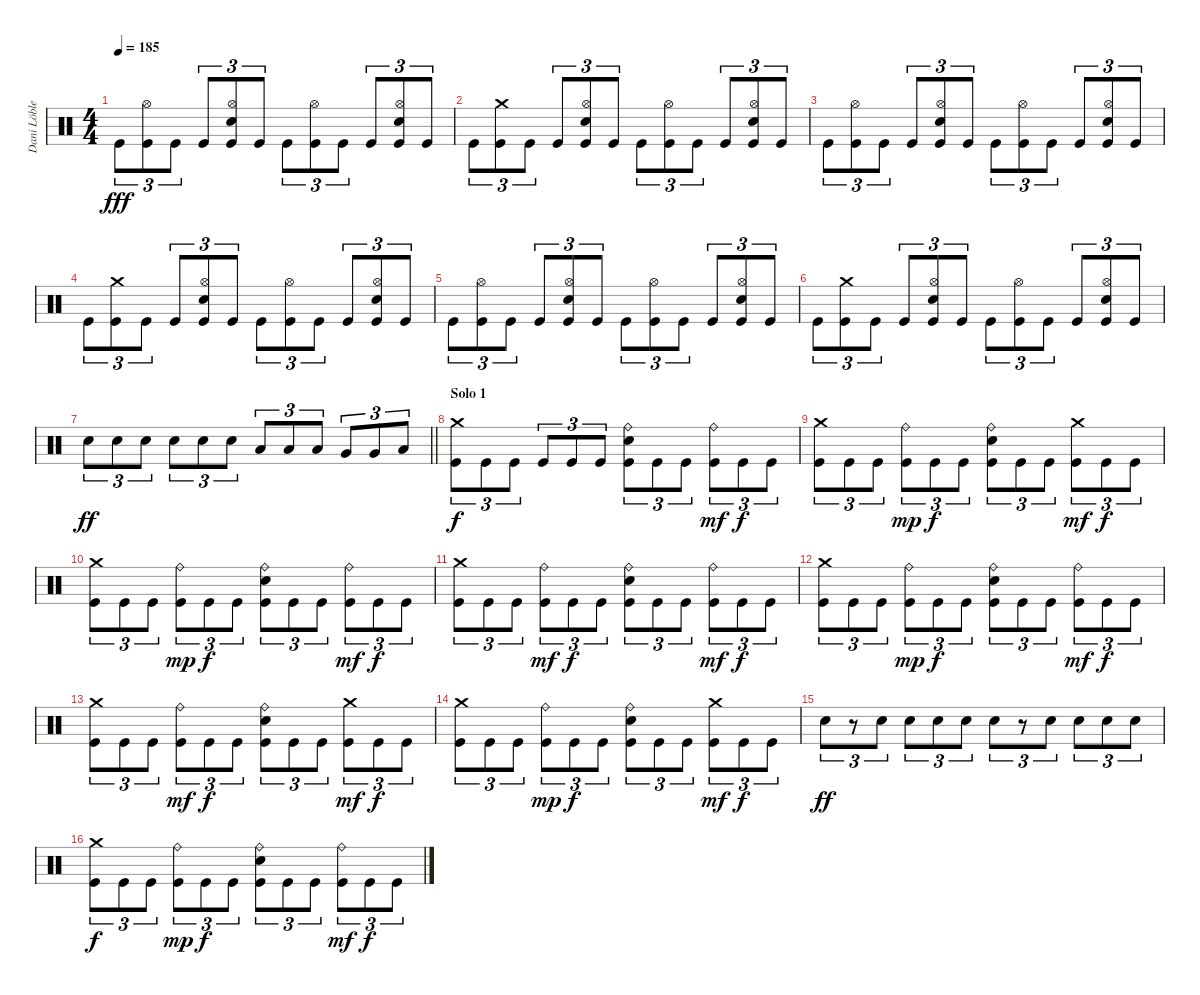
\track ("Dani Löble" "Dani Löble") {instrument percussion}
\staff {score}
\articulation defaults
\ts (4 4)
\tempo 185
\clef neutral
\ks c "Kick (hit)".8{tu (3 2) dy fff}
("Hi-Hat (open)" "Kick (hit)").8{tu (3 2)} "Kick (hit)".8{tu (3 2)} "Kick (hit)".8{tu (3 2)} ("Hi-Hat (open)" "Electric Snare (hit)" "Kick (hit)").8{tu (3 2)} "Kick (hit)".8{tu (3 2)} "Kick (hit)".8{tu (3 2)} ("Hi-Hat (open)" "Kick (hit)").8{tu (3 2)} "Kick (hit)".8{tu (3 2)} "Kick (hit)".8{tu (3 2)} ("Hi-Hat (open)" "Electric Snare (hit)" "Kick (hit)").8{tu (3 2)} "Kick (hit)".8{tu (3 2)} |
"Kick (hit)".8{tu (3 2)} ("Crash medium (hit)" "Kick (hit)").8{tu (3 2)} "Kick (hit)".8{tu (3 2)} "Kick (hit)".8{tu (3 2)} ("Hi-Hat (open)" "Electric Snare (hit)" "Kick (hit)").8{tu (3 2)} "Kick (hit)".8{tu (3 2)} "Kick (hit)".8{tu (3 2)} ("Hi-Hat (open)" "Kick (hit)").8{tu (3 2)} "Kick (hit)".8{tu (3 2)} "Kick (hit)".8{tu (3 2)} ("Hi-Hat (open)" "Electric Snare (hit)" "Kick (hit)").8{tu (3 2)} "Kick (hit)".8{tu (3 2)} |
"Kick (hit)".8{tu (3 2)} ("Hi-Hat (open)" "Kick (hit)").8{tu (3 2)} "Kick (hit)".8{tu (3 2)} "Kick (hit)".8{tu (3 2)} ("Hi-Hat (open)" "Electric Snare (hit)" "Kick (hit)").8{tu (3 2)} "Kick (hit)".8{tu (3 2)} "Kick (hit)".8{tu (3 2)} ("Hi-Hat (open)" "Kick (hit)").8{tu (3 2)} "Kick (hit)".8{tu (3 2)} "Kick (hit)".8{tu (3 2)} ("Hi-Hat (open)" "Electric Snare (hit)" "Kick (hit)").8{tu (3 2)} "Kick (hit)".8{tu (3 2)} |
"Kick (hit)".8{tu (3 2)} ("Crash medium (hit)" "Kick (hit)").8{tu (3 2)} "Kick (hit)".8{tu (3 2)} "Kick (hit)".8{tu (3 2)} ("Hi-Hat (open)" "Electric Snare (hit)" "Kick (hit)").8{tu (3 2)} "Kick (hit)".8{tu (3 2)} "Kick (hit)".8{tu (3 2)} ("Hi-Hat (open)" "Kick (hit)").8{tu (3 2)} "Kick (hit)".8{tu (3 2)} "Kick (hit)".8{tu (3 2)} ("Hi-Hat (open)" "Electric Snare (hit)" "Kick (hit)").8{tu (3 2)} "Kick (hit)".8{tu (3 2)} |
"Kick (hit)".8{tu (3 2)} ("Hi-Hat (open)" "Kick (hit)").8{tu (3 2)} "Kick (hit)".8{tu (3 2)} "Kick (hit)".8{tu (3 2)} ("Hi-Hat (open)" "Electric Snare (hit)" "Kick (hit)").8{tu (3 2)} "Kick (hit)".8{tu (3 2)} "Kick (hit)".8{tu (3 2)} ("Hi-Hat (open)" "Kick (hit)").8{tu (3 2)} "Kick (hit)".8{tu (3 2)} "Kick (hit)".8{tu (3 2)} ("Hi-Hat (open)" "Electric Snare (hit)" "Kick (hit)").8{tu (3 2)} "Kick (hit)".8{tu (3 2)} |
"Kick (hit)".8{tu (3 2)} ("Crash medium (hit)" "Kick (hit)").8{tu (3 2)} "Kick (hit)".8{tu (3 2)} "Kick (hit)".8{tu (3 2)} ("Hi-Hat (open)" "Electric Snare (hit)" "Kick (hit)").8{tu (3 2)} "Kick (hit)".8{tu (3 2)} "Kick (hit)".8{tu (3 2)} ("Hi-Hat (open)" "Kick (hit)").8{tu (3 2)} "Kick (hit)".8{tu (3 2)} "Kick (hit)".8{tu (3 2)} ("Hi-Hat (open)" "Electric Snare (hit)" "Kick (hit)").8{tu (3 2)} "Kick (hit)".8{tu (3 2)} |
\barLineRight lightlight "Electric Snare (hit)".8{tu (3 2) dy ff} "Electric Snare (hit)".8{tu (3 2)} "Electric Snare (hit)".8{tu (3 2)} "Electric Snare (hit)".8{tu (3 2)} "Electric Snare (hit)".8{tu (3 2)} "Electric Snare (hit)".8{tu (3 2)} "Low Tom (hit)".8{tu (3 2)} "Low Tom (hit)".8{tu (3 2)} "Low Tom (hit)".8{tu (3 2)} "Very Low Tom (hit)".8{tu (3 2)} "Very Low Tom (hit)".8{tu (3 2)} "Low Floor Tom (hit)".8{tu (3 2)}
|
\section ("" "Solo 1")
("Crash medium (hit)" "Kick (hit)").8{tu (3 2) dy f} "Kick (hit)".8{tu (3 2)} "Kick (hit)".8{tu (3 2)} "Kick (hit)".8{tu (3 2)} "Kick (hit)".8{tu (3 2)} "Kick (hit)".8{tu (3 2)} ("Ride (bell)" "Electric Snare (hit)" "Kick (hit)").8{tu (3 2)} "Kick (hit)".8{tu (3 2)} "Kick (hit)".8{tu (3 2)} ("Ride (bell)" "Kick (hit)").8{tu (3 2) dy mf} "Kick (hit)".8{tu (3 2) dy f} "Kick (hit)".8{tu (3 2)} |
("Crash medium (hit)" "Kick (hit)").8{tu (3 2)} "Kick (hit)".8{tu (3 2)} "Kick (hit)".8{tu (3 2)} ("Ride (bell)" "Kick (hit)").8{tu (3 2) dy mp} "Kick (hit)".8{tu (3 2) dy f} "Kick (hit)".8{tu (3 2)} ("Ride (bell)" "Electric Snare (hit)" "Kick (hit)").8{tu (3 2)} "Kick (hit)".8{tu (3 2)} "Kick (hit)".8{tu (3 2)} ("Crash medium (hit)" "Kick (hit)").8{tu (3 2) dy mf} "Kick (hit)".8{tu (3 2) dy f} "Kick (hit)".8{tu (3 2)} |
("Crash medium (hit)" "Kick (hit)").8{tu (3 2)} "Kick (hit)".8{tu (3 2)} "Kick (hit)".8{tu (3 2)} ("Ride (bell)" "Kick (hit)").8{tu (3 2) dy mp} "Kick (hit)".8{tu (3 2) dy f} "Kick (hit)".8{tu (3 2)} ("Ride (bell)" "Electric Snare (hit)" "Kick (hit)").8{tu (3 2)} "Kick (hit)".8{tu (3 2)} "Kick (hit)".8{tu (3 2)} ("Ride (bell)" "Kick (hit)").8{tu (3 2) dy mf} "Kick (hit)".8{tu (3 2) dy f} "Kick (hit)".8{tu (3 2)} |
("Crash medium (hit)" "Kick (hit)").8{tu (3 2)} "Kick (hit)".8{tu (3 2)} "Kick (hit)".8{tu (3 2)} ("Ride (bell)" "Kick (hit)").8{tu (3 2) dy mf} "Kick (hit)".8{tu (3 2) dy f} "Kick (hit)".8{tu (3 2)} ("Ride (bell)" "Electric Snare (hit)" "Kick (hit)").8{tu (3 2)} "Kick (hit)".8{tu (3 2)} "Kick (hit)".8{tu (3 2)} ("Ride (bell)" "Kick (hit)").8{tu (3 2) dy mf} "Kick (hit)".8{tu (3 2) dy f} "Kick (hit)".8{tu (3 2)} |
("Crash medium (hit)" "Kick (hit)").8{tu (3 2)} "Kick (hit)".8{tu (3 2)} "Kick (hit)".8{tu (3 2)} ("Ride (bell)" "Kick (hit)").8{tu (3 2) dy mp} "Kick (hit)".8{tu (3 2) dy f} "Kick (hit)".8{tu (3 2)} ("Ride (bell)" "Electric Snare (hit)" "Kick (hit)").8{tu (3 2)} "Kick (hit)".8{tu (3 2)} "Kick (hit)".8{tu (3 2)} ("Ride (bell)" "Kick (hit)").8{tu (3 2) dy mf} "Kick (hit)".8{tu (3 2) dy f} "Kick (hit)".8{tu (3 2)} |
("Crash medium (hit)" "Kick (hit)").8{tu (3 2)} "Kick (hit)".8{tu (3 2)} "Kick (hit)".8{tu (3 2)} ("Ride (bell)" "Kick (hit)").8{tu (3 2) dy mf} "Kick (hit)".8{tu (3 2) dy f} "Kick (hit)".8{tu (3 2)} ("Ride (bell)" "Electric Snare (hit)" "Kick (hit)").8{tu (3 2)} "Kick (hit)".8{tu (3 2)} "Kick (hit)".8{tu (3 2)} ("Crash medium (hit)" "Kick (hit)").8{tu (3 2) dy mf} "Kick (hit)".8{tu (3 2) dy f} "Kick (hit)".8{tu (3 2)} |
("Crash medium (hit)" "Kick (hit)").8{tu (3 2)} "Kick (hit)".8{tu (3 2)} "Kick (hit)".8{tu (3 2)} ("Ride (bell)" "Kick (hit)").8{tu (3 2) dy mp} "Kick (hit)".8{tu (3 2) dy f} "Kick (hit)".8{tu (3 2)} ("Ride (bell)" "Electric Snare (hit)" "Kick (hit)").8{tu (3 2)} "Kick (hit)".8{tu (3 2)} "Kick (hit)".8{tu (3 2)} ("Crash medium (hit)" "Kick (hit)").8{tu (3 2) dy mf} "Kick (hit)".8{tu (3 2) dy f} "Kick (hit)".8{tu (3 2)} |
"Electric Snare (hit)".8{tu (3 2) dy ff} r.8{tu (3 2)} "Electric Snare (hit)".8{tu (3 2)} "Electric Snare (hit)".8{tu (3 2)} "Electric Snare (hit)".8{tu (3 2)} "Electric Snare (hit)".8{tu (3 2)} "Electric Snare (hit)".8{tu (3 2)} r.8{tu (3 2)} "Electric Snare (hit)".8{tu (3 2)} "Electric Snare (hit)".8{tu (3 2)} "Electric Snare (hit)".8{tu (3 2)} "Electric Snare (hit)".8{tu (3 2)} |
("Crash medium (hit)" "Kick (hit)").8{tu (3 2) dy f} "Kick (hit)".8{tu (3 2)} "Kick (hit)".8{tu (3 2)} ("Ride (bell)" "Kick (hit)").8{tu (3 2) dy mp} "Kick (hit)".8{tu (3 2) dy f} "Kick (hit)".8{tu (3 2)} ("Ride (bell)" "Electric Snare (hit)" "Kick (hit)").8{tu (3 2)} "Kick (hit)".8{tu (3 2)} "Kick (hit)".8{tu (3 2)} ("Ride (bell)" "Kick (hit)").8{tu (3 2) dy mf} "Kick (hit)".8{tu (3 2) dy f} "Kick (hit)".8{tu (3 2)}
